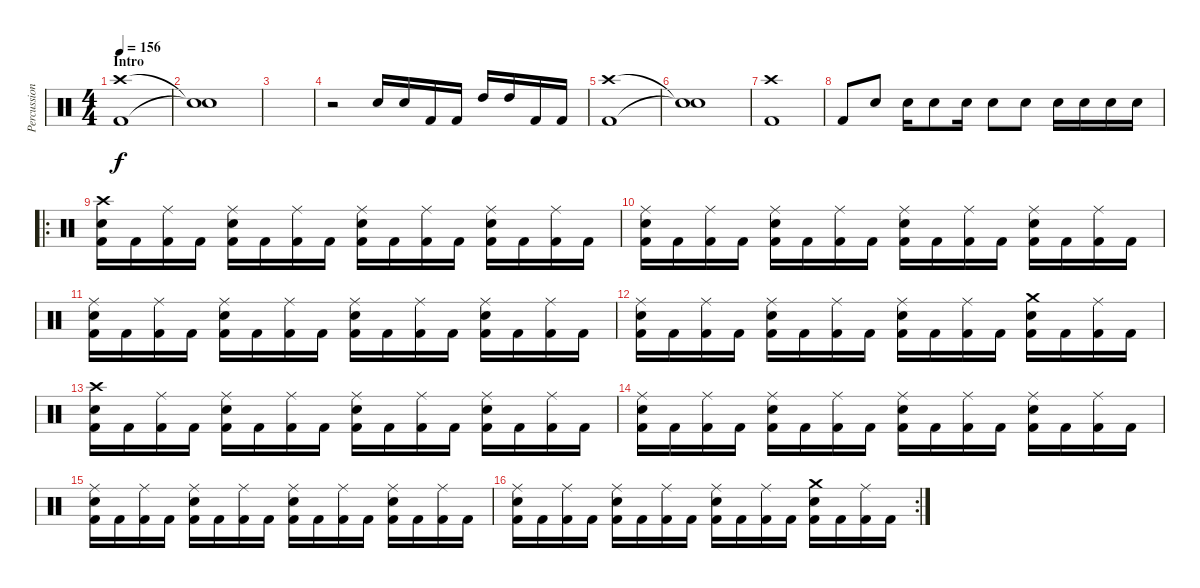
\track ("Percussion" "Percussion") {instrument percussion}
\staff {score}
\articulation defaults
\ts (4 4)
\section ("" "Intro")
\tempo 156
\clef neutral
\ks c
("Crash high (hit)" "Kick (hit) 2").1{dy f} |
("Snare (hit)"{t} "Snare (hit)"{t}).1 |
|
r.2 "Electric Snare (hit)".16 "Electric Snare (hit)".16 "Kick (hit) 2".16 "Kick (hit) 2".16 "High Tom (hit)".16 "High Tom (hit)".16 "Kick (hit) 2".16 "Kick (hit) 2".16 |
("Crash high (hit)" "Kick (hit) 2").1 |
("Snare (hit)"{t} "Snare (hit)"{t}).1 |
("Crash high (hit)" "Kick (hit) 2").1 |
"Kick (hit) 2".8 "Electric Snare (hit)".8 "Electric Snare (hit)".16 "Electric Snare (hit)".8 "Electric Snare (hit)".16 "Electric Snare (hit)".8 "Electric Snare (hit)".8 "Electric Snare (hit)".16 "Electric Snare (hit)".16 "Electric Snare (hit)".16 "Electric Snare (hit)".16 |
\ro
("Crash high (hit)" "Electric Snare (hit)" "Kick (hit) 2").16 "Kick (hit) 2".16 ("Ride (middle)" "Kick (hit) 2").16 "Kick (hit) 2".16 ("Ride (middle)" "Electric Snare (hit)" "Kick (hit) 2").16 "Kick (hit) 2".16 ("Ride (middle)" "Kick (hit) 2").16 "Kick (hit) 2".16 ("Ride (middle)" "Electric Snare (hit)" "Kick (hit) 2").16 "Kick (hit) 2".16 ("Ride (middle)" "Kick (hit) 2").16 "Kick (hit) 2".16 ("Ride (middle)" "Electric Snare (hit)" "Kick (hit) 2").16 "Kick (hit) 2".16 ("Ride (middle)" "Kick (hit) 2").16 "Kick (hit) 2".16 |
("Ride (middle)" "Electric Snare (hit)" "Kick (hit) 2").16 "Kick (hit) 2".16 ("Ride (middle)" "Kick (hit) 2").16 "Kick (hit) 2".16 ("Ride (middle)" "Electric Snare (hit)" "Kick (hit) 2").16 "Kick (hit) 2".16 ("Ride (middle)" "Kick (hit) 2").16 "Kick (hit) 2".16 ("Ride (middle)" "Electric Snare (hit)" "Kick (hit) 2").16 "Kick (hit) 2".16 ("Ride (middle)" "Kick (hit) 2").16 "Kick (hit) 2".16 ("Ride (middle)" "Electric Snare (hit)" "Kick (hit) 2").16 "Kick (hit) 2".16 ("Ride (middle)" "Kick (hit) 2").16 "Kick (hit) 2".16 |
("Ride (middle)" "Electric Snare (hit)" "Kick (hit) 2").16 "Kick (hit) 2".16 ("Ride (middle)" "Kick (hit) 2").16 "Kick (hit) 2".16 ("Ride (middle)" "Electric Snare (hit)" "Kick (hit) 2").16 "Kick (hit) 2".16 ("Ride (middle)" "Kick (hit) 2").16 "Kick (hit) 2".16 ("Ride (middle)" "Electric Snare (hit)" "Kick (hit) 2").16 "Kick (hit) 2".16 ("Ride (middle)" "Kick (hit) 2").16 "Kick (hit) 2".16 ("Ride (middle)" "Electric Snare (hit)" "Kick (hit) 2").16 "Kick (hit) 2".16 ("Ride (middle)" "Kick (hit) 2").16 "Kick (hit) 2".16 |
("Ride (middle)" "Electric Snare (hit)" "Kick (hit) 2").16 "Kick (hit) 2".16 ("Ride (middle)" "Kick (hit) 2").16 "Kick (hit) 2".16 ("Ride (middle)" "Electric Snare (hit)" "Kick (hit) 2").16 "Kick (hit) 2".16 ("Ride (middle)" "Kick (hit) 2").16 "Kick (hit) 2".16 ("Ride (middle)" "Electric Snare (hit)" "Kick (hit) 2").16 "Kick (hit) 2".16 ("Ride (middle)" "Kick (hit) 2").16 "Kick (hit) 2".16 ("Crash medium (hit)" "Electric Snare (hit)" "Kick (hit) 2").16 "Kick (hit) 2".16 ("Ride (middle)" "Kick (hit) 2").16 "Kick (hit) 2".16 |
("Crash high (hit)" "Electric Snare (hit)" "Kick (hit) 2").16 "Kick (hit) 2".16 ("Ride (middle)" "Kick (hit) 2").16 "Kick (hit) 2".16 ("Ride (middle)" "Electric Snare (hit)" "Kick (hit) 2").16 "Kick (hit) 2".16 ("Ride (middle)" "Kick (hit) 2").16 "Kick (hit) 2".16 ("Ride (middle)" "Electric Snare (hit)" "Kick (hit) 2").16 "Kick (hit) 2".16 ("Ride (middle)" "Kick (hit) 2").16 "Kick (hit) 2".16 ("Ride (middle)" "Electric Snare (hit)" "Kick (hit) 2").16 "Kick (hit) 2".16 ("Ride (middle)" "Kick (hit) 2").16 "Kick (hit) 2".16 |
("Ride (middle)" "Electric Snare (hit)" "Kick (hit) 2").16 "Kick (hit) 2".16 ("Ride (middle)" "Kick (hit) 2").16 "Kick (hit) 2".16 ("Ride (middle)" "Electric Snare (hit)" "Kick (hit) 2").16 "Kick (hit) 2".16 ("Ride (middle)" "Kick (hit) 2").16 "Kick (hit) 2".16 ("Ride (middle)" "Electric Snare (hit)" "Kick (hit) 2").16 "Kick (hit) 2".16 ("Ride (middle)" "Kick (hit) 2").16 "Kick (hit) 2".16 ("Ride (middle)" "Electric Snare (hit)" "Kick (hit) 2").16 "Kick (hit) 2".16 ("Ride (middle)" "Kick (hit) 2").16 "Kick (hit) 2".16 |
("Ride (middle)" "Electric Snare (hit)" "Kick (hit) 2").16 "Kick (hit) 2".16 ("Ride (middle)" "Kick (hit) 2").16 "Kick (hit) 2".16 ("Ride (middle)" "Electric Snare (hit)" "Kick (hit) 2").16 "Kick (hit) 2".16 ("Ride (middle)" "Kick (hit) 2").16 "Kick (hit) 2".16 ("Ride (middle)" "Electric Snare (hit)" "Kick (hit) 2").16 "Kick (hit) 2".16 ("Ride (middle)" "Kick (hit) 2").16 "Kick (hit) 2".16 ("Ride (middle)" "Electric Snare (hit)" "Kick (hit) 2").16 "Kick (hit) 2".16 ("Ride (middle)" "Kick (hit) 2").16 "Kick (hit) 2".16 |
\rc 2
("Ride (middle)" "Electric Snare (hit)" "Kick (hit) 2").16 "Kick (hit) 2".16 ("Ride (middle)" "Kick (hit) 2").16 "Kick (hit) 2".16 ("Ride (middle)" "Electric Snare (hit)" "Kick (hit) 2").16 "Kick (hit) 2".16 ("Ride (middle)" "Kick (hit) 2").16 "Kick (hit) 2".16 ("Ride (middle)" "Electric Snare (hit)" "Kick (hit) 2").16 "Kick (hit) 2".16 ("Ride (middle)" "Kick (hit) 2").16 "Kick (hit) 2".16 ("Crash medium (hit)" "Electric Snare (hit)" "Kick (hit) 2").16 "Kick (hit) 2".16 ("Ride (middle)" "Kick (hit) 2").16 "Kick (hit) 2".16
